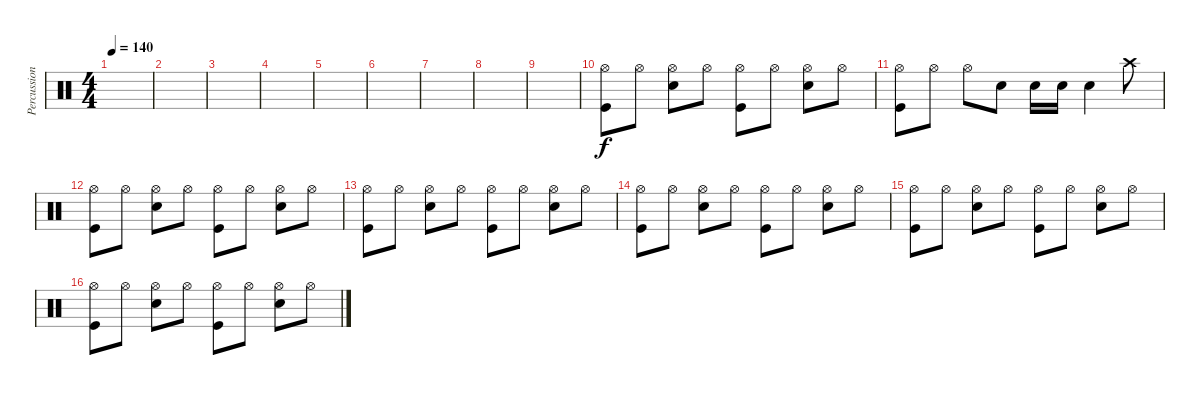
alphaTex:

\track ("Percussion" "Percussion") {instrument percussion}
\staff {score}
\articulation defaults
\ts (4 4)
\tempo 140
\clef neutral
\ks c
|
|
|
|
|
|
|
|
|
("Hi-Hat (open)" "Kick (hit)").8{volume 13} "Hi-Hat (open)".8 ("Hi-Hat (open)" "Snare (hit) 2").8 "Hi-Hat (open)".8 ("Hi-Hat (open)" "Kick (hit)").8 "Hi-Hat (open)".8 ("Hi-Hat (open)" "Snare (hit) 2").8 "Hi-Hat (open)".8 |
("Hi-Hat (open)" "Kick (hit)").8 "Hi-Hat (open)".8 "Hi-Hat (open)".8 "Snare (hit) 2".8 "Snare (hit) 2".16 "Snare (hit) 2".16 "Snare (hit) 2".4 "Crash high (hit)".8 |
("Hi-Hat (open)" "Kick (hit)").8 "Hi-Hat (open)".8 ("Hi-Hat (open)" "Snare (hit) 2").8 "Hi-Hat (open)".8 ("Hi-Hat (open)" "Kick (hit)").8 "Hi-Hat (open)".8 ("Hi-Hat (open)" "Snare (hit) 2").8 "Hi-Hat (open)".8 |
("Hi-Hat (open)" "Kick (hit)").8 "Hi-Hat (open)".8 ("Hi-Hat (open)" "Snare (hit) 2").8 "Hi-Hat (open)".8 ("Hi-Hat (open)" "Kick (hit)").8 "Hi-Hat (open)".8 ("Hi-Hat (open)" "Snare (hit) 2").8 "Hi-Hat (open)".8 |
("Hi-Hat (open)" "Kick (hit)").8 "Hi-Hat (open)".8 ("Hi-Hat (open)" "Snare (hit) 2").8 "Hi-Hat (open)".8 ("Hi-Hat (open)" "Kick (hit)").8 "Hi-Hat (open)".8 ("Hi-Hat (open)" "Snare (hit) 2").8 "Hi-Hat (open)".8 |
("Hi-Hat (open)" "Kick (hit)").8 "Hi-Hat (open)".8 ("Hi-Hat (open)" "Snare (hit) 2").8 "Hi-Hat (open)".8 ("Hi-Hat (open)" "Kick (hit)").8 "Hi-Hat (open)".8 ("Hi-Hat (open)" "Snare (hit) 2").8 "Hi-Hat (open)".8 |
("Hi-Hat (open)" "Kick (hit)").8 "Hi-Hat (open)".8 ("Hi-Hat (open)" "Snare (hit) 2").8 "Hi-Hat (open)".8 ("Hi-Hat (open)" "Kick (hit)").8 "Hi-Hat (open)".8 ("Hi-Hat (open)" "Snare (hit) 2").8 "Hi-Hat (open)".8
